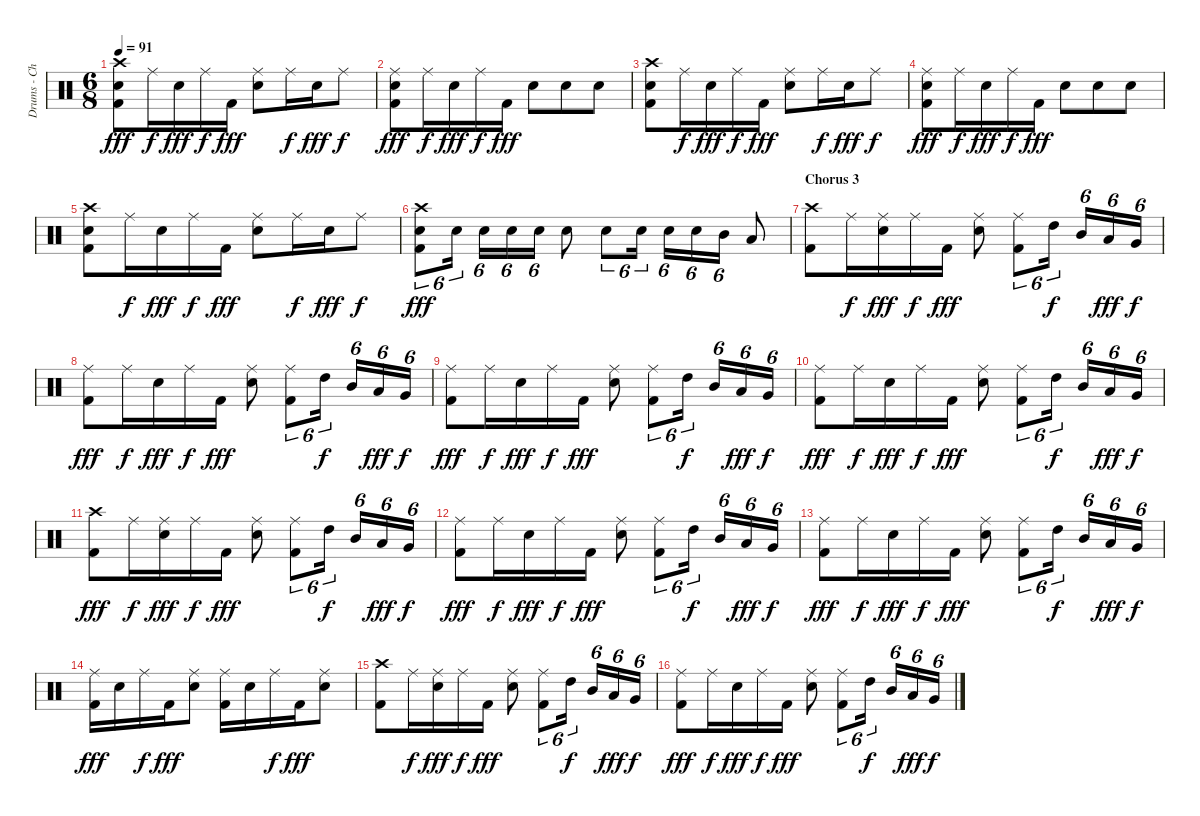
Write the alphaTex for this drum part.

\track ("Drums - Chad" "Drums - Ch") {instrument percussion}
\staff {score}
\articulation defaults
\ts (6 8)
\tempo 91
\clef neutral
\ks c
("Crash high (hit)" "Electric Snare (hit)" "Kick (hit) 2").8{dy fff} "Ride (middle)".16{dy f} "Electric Snare (hit)".16{dy fff} "Ride (middle)".16{dy f} "Kick (hit) 2".16{dy fff} ("Ride (middle)" "Electric Snare (hit)").8 "Ride (middle)".16{dy f} "Electric Snare (hit)".16{dy fff} "Ride (middle)".8{dy f} |
("Ride (middle)" "Electric Snare (hit)" "Kick (hit) 2").8{dy fff} "Ride (middle)".16{dy f} "Electric Snare (hit)".16{dy fff} "Ride (middle)".16{dy f} "Kick (hit) 2".16{dy fff} "Electric Snare (hit)".8 "Electric Snare (hit)".8 "Electric Snare (hit)".8 |
("Crash high (hit)" "Electric Snare (hit)" "Kick (hit) 2").8 "Ride (middle)".16{dy f} "Electric Snare (hit)".16{dy fff} "Ride (middle)".16{dy f} "Kick (hit) 2".16{dy fff} ("Ride (middle)" "Electric Snare (hit)").8 "Ride (middle)".16{dy f} "Electric Snare (hit)".16{dy fff} "Ride (middle)".8{dy f} |
("Ride (middle)" "Electric Snare (hit)" "Kick (hit) 2").8{dy fff} "Ride (middle)".16{dy f} "Electric Snare (hit)".16{dy fff} "Ride (middle)".16{dy f} "Kick (hit) 2".16{dy fff} "Electric Snare (hit)".8 "Electric Snare (hit)".8 "Electric Snare (hit)".8 |
("Crash high (hit)" "Electric Snare (hit)" "Kick (hit) 2").8 "Ride (middle)".16{dy f} "Electric Snare (hit)".16{dy fff} "Ride (middle)".16{dy f} "Kick (hit) 2".16{dy fff} ("Ride (middle)" "Electric Snare (hit)").8 "Ride (middle)".16{dy f} "Electric Snare (hit)".16{dy fff} "Ride (middle)".8{dy f} |
("Crash high (hit)" "Electric Snare (hit)" "Kick (hit) 2").8{tu (6 4) dy fff} "Electric Snare (hit)".16{tu (6 4)} "Electric Snare (hit)".16{tu (6 4)} "Electric Snare (hit)".16{tu (6 4)} "Electric Snare (hit)".16{tu (6 4)} "Electric Snare (hit)".8 "Electric Snare (hit)".8{tu (6 4)} "Electric Snare (hit)".16{tu (6 4)} "Electric Snare (hit)".16{tu (6 4)} "Electric Snare (hit)".16{tu (6 4)} "Mid Tom (hit)".16{tu (6 4)} "Low Tom (hit)".8 |
\section ("" "Chorus 3")
("Crash high (hit)" "Kick (hit) 2").8 "Ride (middle)".16{dy f} ("Ride (middle)" "Electric Snare (hit)").16{dy fff} "Ride (middle)".16{dy f} "Kick (hit) 2".16{dy fff} ("Ride (middle)" "Electric Snare (hit)").8 ("Ride (middle)" "Kick (hit) 2").8{tu (6 4)} "High Tom (hit)".16{tu (6 4) dy f} "Mid Tom (hit)".16{tu (6 4)} "Low Tom (hit)".16{tu (6 4) dy fff} "Very Low Tom (hit)".16{tu (6 4) dy f} |
("Ride (middle)" "Kick (hit) 2").8{dy fff} "Ride (middle)".16{dy f} "Electric Snare (hit)".16{dy fff} "Ride (middle)".16{dy f} "Kick (hit) 2".16{dy fff} ("Ride (middle)" "Electric Snare (hit)").8 ("Ride (middle)" "Kick (hit) 2").8{tu (6 4)} "High Tom (hit)".16{tu (6 4) dy f} "Mid Tom (hit)".16{tu (6 4)} "Low Tom (hit)".16{tu (6 4) dy fff} "Very Low Tom (hit)".16{tu (6 4) dy f} |
("Ride (middle)" "Kick (hit) 2").8{dy fff} "Ride (middle)".16{dy f} "Electric Snare (hit)".16{dy fff} "Ride (middle)".16{dy f} "Kick (hit) 2".16{dy fff} ("Ride (middle)" "Electric Snare (hit)").8 ("Ride (middle)" "Kick (hit) 2").8{tu (6 4)} "High Tom (hit)".16{tu (6 4) dy f} "Mid Tom (hit)".16{tu (6 4)} "Low Tom (hit)".16{tu (6 4) dy fff} "Very Low Tom (hit)".16{tu (6 4) dy f} |
("Ride (middle)" "Kick (hit) 2").8{dy fff} "Ride (middle)".16{dy f} "Electric Snare (hit)".16{dy fff} "Ride (middle)".16{dy f} "Kick (hit) 2".16{dy fff} ("Ride (middle)" "Electric Snare (hit)").8 ("Ride (middle)" "Kick (hit) 2").8{tu (6 4)} "High Tom (hit)".16{tu (6 4) dy f} "Mid Tom (hit)".16{tu (6 4)} "Low Tom (hit)".16{tu (6 4) dy fff} "Very Low Tom (hit)".16{tu (6 4) dy f} |
("Crash high (hit)" "Kick (hit) 2").8{dy fff} "Ride (middle)".16{dy f} ("Ride (middle)" "Electric Snare (hit)").16{dy fff} "Ride (middle)".16{dy f} "Kick (hit) 2".16{dy fff} ("Ride (middle)" "Electric Snare (hit)").8 ("Ride (middle)" "Kick (hit) 2").8{tu (6 4)} "High Tom (hit)".16{tu (6 4) dy f} "Mid Tom (hit)".16{tu (6 4)} "Low Tom (hit)".16{tu (6 4) dy fff} "Very Low Tom (hit)".16{tu (6 4) dy f} |
("Ride (middle)" "Kick (hit) 2").8{dy fff} "Ride (middle)".16{dy f} "Electric Snare (hit)".16{dy fff} "Ride (middle)".16{dy f} "Kick (hit) 2".16{dy fff} ("Ride (middle)" "Electric Snare (hit)").8 ("Ride (middle)" "Kick (hit) 2").8{tu (6 4)} "High Tom (hit)".16{tu (6 4) dy f} "Mid Tom (hit)".16{tu (6 4)} "Low Tom (hit)".16{tu (6 4) dy fff} "Very Low Tom (hit)".16{tu (6 4) dy f} |
("Ride (middle)" "Kick (hit) 2").8{dy fff} "Ride (middle)".16{dy f} "Electric Snare (hit)".16{dy fff} "Ride (middle)".16{dy f} "Kick (hit) 2".16{dy fff} ("Ride (middle)" "Electric Snare (hit)").8 ("Ride (middle)" "Kick (hit) 2").8{tu (6 4)} "High Tom (hit)".16{tu (6 4) dy f} "Mid Tom (hit)".16{tu (6 4)} "Low Tom (hit)".16{tu (6 4) dy fff} "Very Low Tom (hit)".16{tu (6 4) dy f} |
("Ride (middle)" "Kick (hit) 2").16{dy fff} "Electric Snare (hit)".16 "Ride (middle)".16{dy f} "Kick (hit) 2".16{dy fff} ("Ride (middle)" "Electric Snare (hit)").8 ("Ride (middle)" "Kick (hit) 2").16 "Electric Snare (hit)".16 "Ride (middle)".16{dy f} "Kick (hit) 2".16{dy fff} ("Ride (middle)" "Electric Snare (hit)").8 |
("Crash high (hit)" "Kick (hit) 2").8 "Ride (middle)".16{dy f} ("Ride (middle)" "Electric Snare (hit)").16{dy fff} "Ride (middle)".16{dy f} "Kick (hit) 2".16{dy fff} ("Ride (middle)" "Electric Snare (hit)").8 ("Ride (middle)" "Kick (hit) 2").8{tu (6 4)} "High Tom (hit)".16{tu (6 4) dy f} "Mid Tom (hit)".16{tu (6 4)} "Low Tom (hit)".16{tu (6 4) dy fff} "Very Low Tom (hit)".16{tu (6 4) dy f} |
("Ride (middle)" "Kick (hit) 2").8{dy fff} "Ride (middle)".16{dy f} "Electric Snare (hit)".16{dy fff} "Ride (middle)".16{dy f} "Kick (hit) 2".16{dy fff} ("Ride (middle)" "Electric Snare (hit)").8 ("Ride (middle)" "Kick (hit) 2").8{tu (6 4)} "High Tom (hit)".16{tu (6 4) dy f} "Mid Tom (hit)".16{tu (6 4)} "Low Tom (hit)".16{tu (6 4) dy fff} "Very Low Tom (hit)".16{tu (6 4) dy f}
